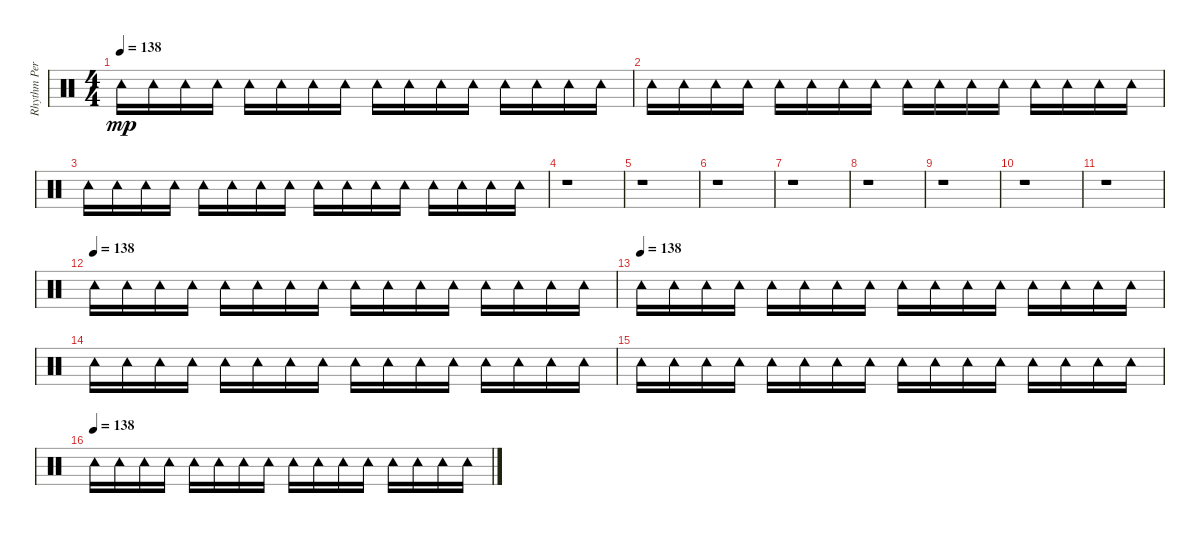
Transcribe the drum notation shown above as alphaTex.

\track ("Rhythm Percussion" "Rhythm Per") {instrument percussion}
\staff {score}
\articulation defaults
\ts (4 4)
\tempo 138
\clef neutral
\ks c "Tambourine (hit)".16{dy mp} "Tambourine (hit)".16 "Tambourine (hit)".16 "Tambourine (hit)".16 "Tambourine (hit)".16 "Tambourine (hit)".16 "Tambourine (hit)".16 "Tambourine (hit)".16 "Tambourine (hit)".16 "Tambourine (hit)".16 "Tambourine (hit)".16 "Tambourine (hit)".16 "Tambourine (hit)".16 "Tambourine (hit)".16 "Tambourine (hit)".16 "Tambourine (hit)".16
|
"Tambourine (hit)".16 "Tambourine (hit)".16 "Tambourine (hit)".16 "Tambourine (hit)".16 "Tambourine (hit)".16 "Tambourine (hit)".16 "Tambourine (hit)".16 "Tambourine (hit)".16 "Tambourine (hit)".16 "Tambourine (hit)".16 "Tambourine (hit)".16 "Tambourine (hit)".16 "Tambourine (hit)".16 "Tambourine (hit)".16 "Tambourine (hit)".16 "Tambourine (hit)".16 |
"Tambourine (hit)".16 "Tambourine (hit)".16 "Tambourine (hit)".16 "Tambourine (hit)".16 "Tambourine (hit)".16 "Tambourine (hit)".16 "Tambourine (hit)".16 "Tambourine (hit)".16 "Tambourine (hit)".16 "Tambourine (hit)".16 "Tambourine (hit)".16 "Tambourine (hit)".16 "Tambourine (hit)".16 "Tambourine (hit)".16 "Tambourine (hit)".16 "Tambourine (hit)".16 |
r.1 |
r.1 |
r.1 |
r.1 |
r.1 |
r.1 |
r.1 |
r.1 |
\tempo (138)
"Tambourine (hit)".16 "Tambourine (hit)".16 "Tambourine (hit)".16 "Tambourine (hit)".16 "Tambourine (hit)".16 "Tambourine (hit)".16 "Tambourine (hit)".16 "Tambourine (hit)".16 "Tambourine (hit)".16 "Tambourine (hit)".16 "Tambourine (hit)".16 "Tambourine (hit)".16 "Tambourine (hit)".16 "Tambourine (hit)".16 "Tambourine (hit)".16 "Tambourine (hit)".16 |
\tempo (138)
"Tambourine (hit)".16 "Tambourine (hit)".16 "Tambourine (hit)".16 "Tambourine (hit)".16 "Tambourine (hit)".16 "Tambourine (hit)".16 "Tambourine (hit)".16 "Tambourine (hit)".16 "Tambourine (hit)".16 "Tambourine (hit)".16 "Tambourine (hit)".16 "Tambourine (hit)".16 "Tambourine (hit)".16 "Tambourine (hit)".16 "Tambourine (hit)".16 "Tambourine (hit)".16 |
"Tambourine (hit)".16 "Tambourine (hit)".16 "Tambourine (hit)".16 "Tambourine (hit)".16 "Tambourine (hit)".16 "Tambourine (hit)".16 "Tambourine (hit)".16 "Tambourine (hit)".16 "Tambourine (hit)".16 "Tambourine (hit)".16 "Tambourine (hit)".16 "Tambourine (hit)".16 "Tambourine (hit)".16 "Tambourine (hit)".16 "Tambourine (hit)".16 "Tambourine (hit)".16 |
"Tambourine (hit)".16 "Tambourine (hit)".16 "Tambourine (hit)".16 "Tambourine (hit)".16 "Tambourine (hit)".16 "Tambourine (hit)".16 "Tambourine (hit)".16 "Tambourine (hit)".16 "Tambourine (hit)".16 "Tambourine (hit)".16 "Tambourine (hit)".16 "Tambourine (hit)".16 "Tambourine (hit)".16 "Tambourine (hit)".16 "Tambourine (hit)".16 "Tambourine (hit)".16 |
\tempo (138)
"Tambourine (hit)".16 "Tambourine (hit)".16 "Tambourine (hit)".16 "Tambourine (hit)".16 "Tambourine (hit)".16 "Tambourine (hit)".16 "Tambourine (hit)".16 "Tambourine (hit)".16 "Tambourine (hit)".16 "Tambourine (hit)".16 "Tambourine (hit)".16 "Tambourine (hit)".16 "Tambourine (hit)".16 "Tambourine (hit)".16 "Tambourine (hit)".16 "Tambourine (hit)".16
